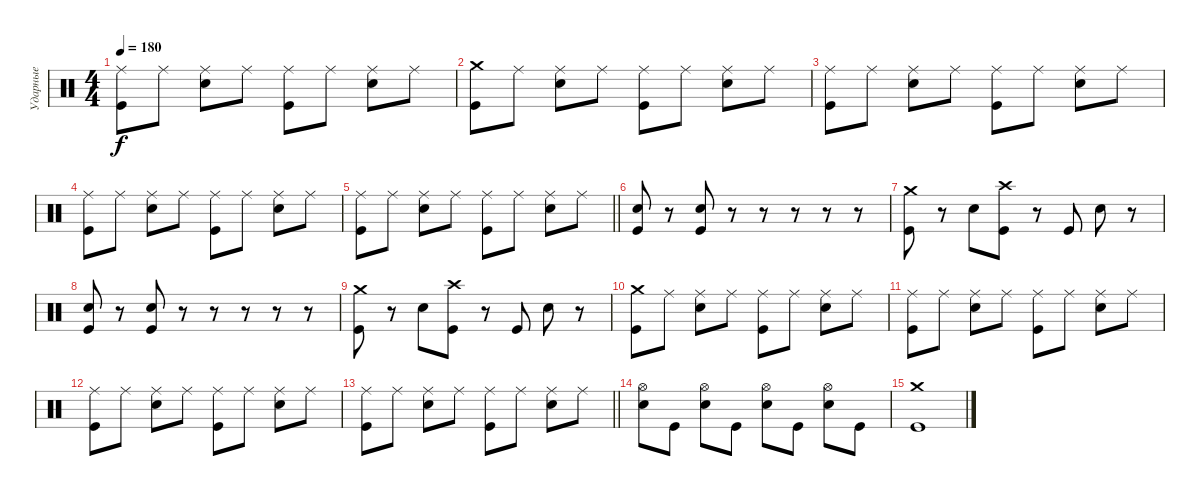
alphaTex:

\track ("Ударные" "Ударные") {instrument percussion}
\staff {score}
\articulation defaults
\ts (4 4)
\tempo 180
\clef neutral
\ks c
("Ride (middle)" "Kick (hit)").8{dy f} "Ride (middle)".8 ("Ride (middle)" "Electric Snare (hit)").8 "Ride (middle)".8 ("Ride (middle)" "Kick (hit)").8 "Ride (middle)".8 ("Ride (middle)" "Electric Snare (hit)").8 "Ride (middle)".8 |
("Crash medium (hit)" "Kick (hit)").8 "Ride (middle)".8 ("Ride (middle)" "Electric Snare (hit)").8 "Ride (middle)".8 ("Ride (middle)" "Kick (hit)").8 "Ride (middle)".8 ("Ride (middle)" "Electric Snare (hit)").8 "Ride (middle)".8 |
("Ride (middle)" "Kick (hit)").8 "Ride (middle)".8 ("Ride (middle)" "Electric Snare (hit)").8 "Ride (middle)".8 ("Ride (middle)" "Kick (hit)").8 "Ride (middle)".8 ("Ride (middle)" "Electric Snare (hit)").8 "Ride (middle)".8 |
("Ride (middle)" "Kick (hit)").8 "Ride (middle)".8 ("Ride (middle)" "Electric Snare (hit)").8 "Ride (middle)".8 ("Ride (middle)" "Kick (hit)").8 "Ride (middle)".8 ("Ride (middle)" "Electric Snare (hit)").8 "Ride (middle)".8 |
\barLineRight lightlight
("Ride (middle)" "Kick (hit)").8 "Ride (middle)".8 ("Ride (middle)" "Electric Snare (hit)").8 "Ride (middle)".8 ("Ride (middle)" "Kick (hit)").8 "Ride (middle)".8 ("Ride (middle)" "Electric Snare (hit)").8 "Ride (middle)".8 |
\section ("" " ")
("Electric Snare (hit)" "Kick (hit)").8 r.8 ("Electric Snare (hit)" "Kick (hit)").8 r.8 r.8 r.8 r.8 r.8 |
("Crash medium (hit)" "Kick (hit)").8 r.8 "Electric Snare (hit)".8 ("Crash high (hit)" "Kick (hit)").8 r.8 "Kick (hit)".8 "Electric Snare (hit)".8 r.8 |
("Electric Snare (hit)" "Kick (hit)").8 r.8 ("Electric Snare (hit)" "Kick (hit)").8 r.8 r.8 r.8 r.8 r.8 |
("Crash medium (hit)" "Kick (hit)").8 r.8 "Electric Snare (hit)".8 ("Crash high (hit)" "Kick (hit)").8 r.8 "Kick (hit)".8 "Electric Snare (hit)".8 r.8 |
("Crash medium (hit)" "Kick (hit)").8 "Ride (middle)".8 ("Ride (middle)" "Electric Snare (hit)").8 "Ride (middle)".8 ("Ride (middle)" "Kick (hit)").8 "Ride (middle)".8 ("Ride (middle)" "Electric Snare (hit)").8 "Ride (middle)".8 |
("Ride (middle)" "Kick (hit)").8 "Ride (middle)".8 ("Ride (middle)" "Electric Snare (hit)").8 "Ride (middle)".8 ("Ride (middle)" "Kick (hit)").8 "Ride (middle)".8 ("Ride (middle)" "Electric Snare (hit)").8 "Ride (middle)".8 |
("Ride (middle)" "Kick (hit)").8 "Ride (middle)".8 ("Ride (middle)" "Electric Snare (hit)").8 "Ride (middle)".8 ("Ride (middle)" "Kick (hit)").8 "Ride (middle)".8 ("Ride (middle)" "Electric Snare (hit)").8 "Ride (middle)".8 |
\barLineRight lightlight
("Ride (middle)" "Kick (hit)").8 "Ride (middle)".8 ("Ride (middle)" "Electric Snare (hit)").8 "Ride (middle)".8 ("Ride (middle)" "Kick (hit)").8 "Ride (middle)".8 ("Ride (middle)" "Electric Snare (hit)").8 "Ride (middle)".8 |
("Hi-Hat (open)" "Electric Snare (hit)").8 "Kick (hit)".8 ("Hi-Hat (open)" "Electric Snare (hit)").8 "Kick (hit)".8 ("Hi-Hat (open)" "Electric Snare (hit)").8 "Kick (hit)".8 ("Hi-Hat (open)" "Electric Snare (hit)").8 "Kick (hit)".8 |
("Crash medium (hit)" "Kick (hit)").1
